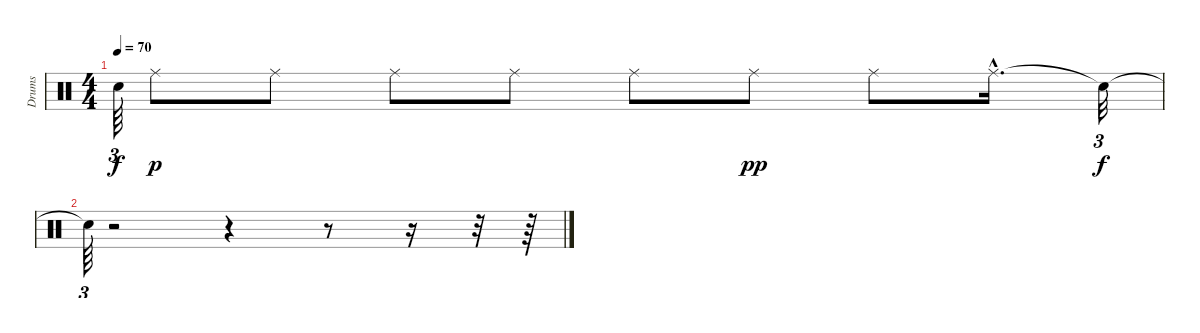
\track ("Drums               " "Drums     ") {instrument percussion}
\staff {score}
\articulation defaults
\ts (4 4)
\tempo 70
\clef neutral
\ks c "Snare (hit)"{t}.64{tu (3 2) dy f} "Ride (middle)".8{dy p} "Ride (middle)".8 "Ride (middle)".8 "Ride (middle)".8 "Ride (middle)".8 "Ride (middle)".8{dy pp} "Ride (middle)".8 "Ride (middle)"{hac}.16{d} "Snare (hit)"{t}.32{tu (3 2) dy f}
|
"Snare (hit)"{t}.64{tu (3 2)} r.2 r.4 r.8 r.16 r.32 r.64
